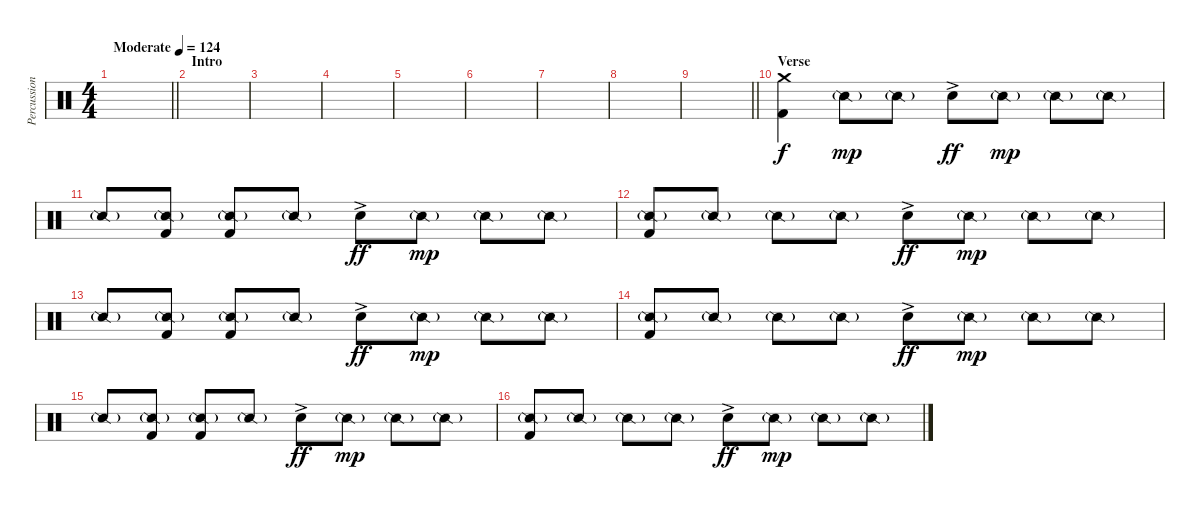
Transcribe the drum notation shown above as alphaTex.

\track ("Percussion" "Percussion") {instrument percussion}
\staff {score}
\articulation defaults
\ts (4 4)
\tempo (124 "Moderate")
\clef neutral
\barLineRight lightlight
\ks c
|
\section ("" "Intro")
|
|
|
|
|
|
|
\barLineRight lightlight
|
\section ("" "Verse")
("Crash medium (hit)" "Kick (hit) 2").4 "Snare (side stick) 2"{g}.8{dy mp} "Snare (side stick) 2"{g}.8 "Electric Snare (hit)"{ac}.8{dy ff} "Snare (side stick) 2"{g}.8{dy mp} "Snare (side stick) 2"{g}.8 "Snare (side stick) 2"{g}.8 |
"Snare (side stick) 2"{g}.8 ("Snare (side stick) 2"{g} "Kick (hit) 2").8 ("Snare (side stick) 2"{g} "Kick (hit) 2").8 "Snare (side stick) 2"{g}.8 "Electric Snare (hit)"{ac}.8{dy ff} "Snare (side stick) 2"{g}.8{dy mp} "Snare (side stick) 2"{g}.8 "Snare (side stick) 2"{g}.8 |
("Snare (side stick) 2"{g} "Kick (hit) 2").8 "Snare (side stick) 2"{g}.8 "Snare (side stick) 2"{g}.8 "Snare (side stick) 2"{g}.8 "Electric Snare (hit)"{ac}.8{dy ff} "Snare (side stick) 2"{g}.8{dy mp} "Snare (side stick) 2"{g}.8 "Snare (side stick) 2"{g}.8 |
"Snare (side stick) 2"{g}.8 ("Snare (side stick) 2"{g} "Kick (hit) 2").8 ("Snare (side stick) 2"{g} "Kick (hit) 2").8 "Snare (side stick) 2"{g}.8 "Electric Snare (hit)"{ac}.8{dy ff} "Snare (side stick) 2"{g}.8{dy mp} "Snare (side stick) 2"{g}.8 "Snare (side stick) 2"{g}.8 |
("Snare (side stick) 2"{g} "Kick (hit) 2").8 "Snare (side stick) 2"{g}.8 "Snare (side stick) 2"{g}.8 "Snare (side stick) 2"{g}.8 "Electric Snare (hit)"{ac}.8{dy ff} "Snare (side stick) 2"{g}.8{dy mp} "Snare (side stick) 2"{g}.8 "Snare (side stick) 2"{g}.8 |
"Snare (side stick) 2"{g}.8 ("Snare (side stick) 2"{g} "Kick (hit) 2").8 ("Snare (side stick) 2"{g} "Kick (hit) 2").8 "Snare (side stick) 2"{g}.8 "Electric Snare (hit)"{ac}.8{dy ff} "Snare (side stick) 2"{g}.8{dy mp} "Snare (side stick) 2"{g}.8 "Snare (side stick) 2"{g}.8 |
("Snare (side stick) 2"{g} "Kick (hit) 2").8 "Snare (side stick) 2"{g}.8 "Snare (side stick) 2"{g}.8 "Snare (side stick) 2"{g}.8 "Electric Snare (hit)"{ac}.8{dy ff} "Snare (side stick) 2"{g}.8{dy mp} "Snare (side stick) 2"{g}.8 "Snare (side stick) 2"{g}.8
